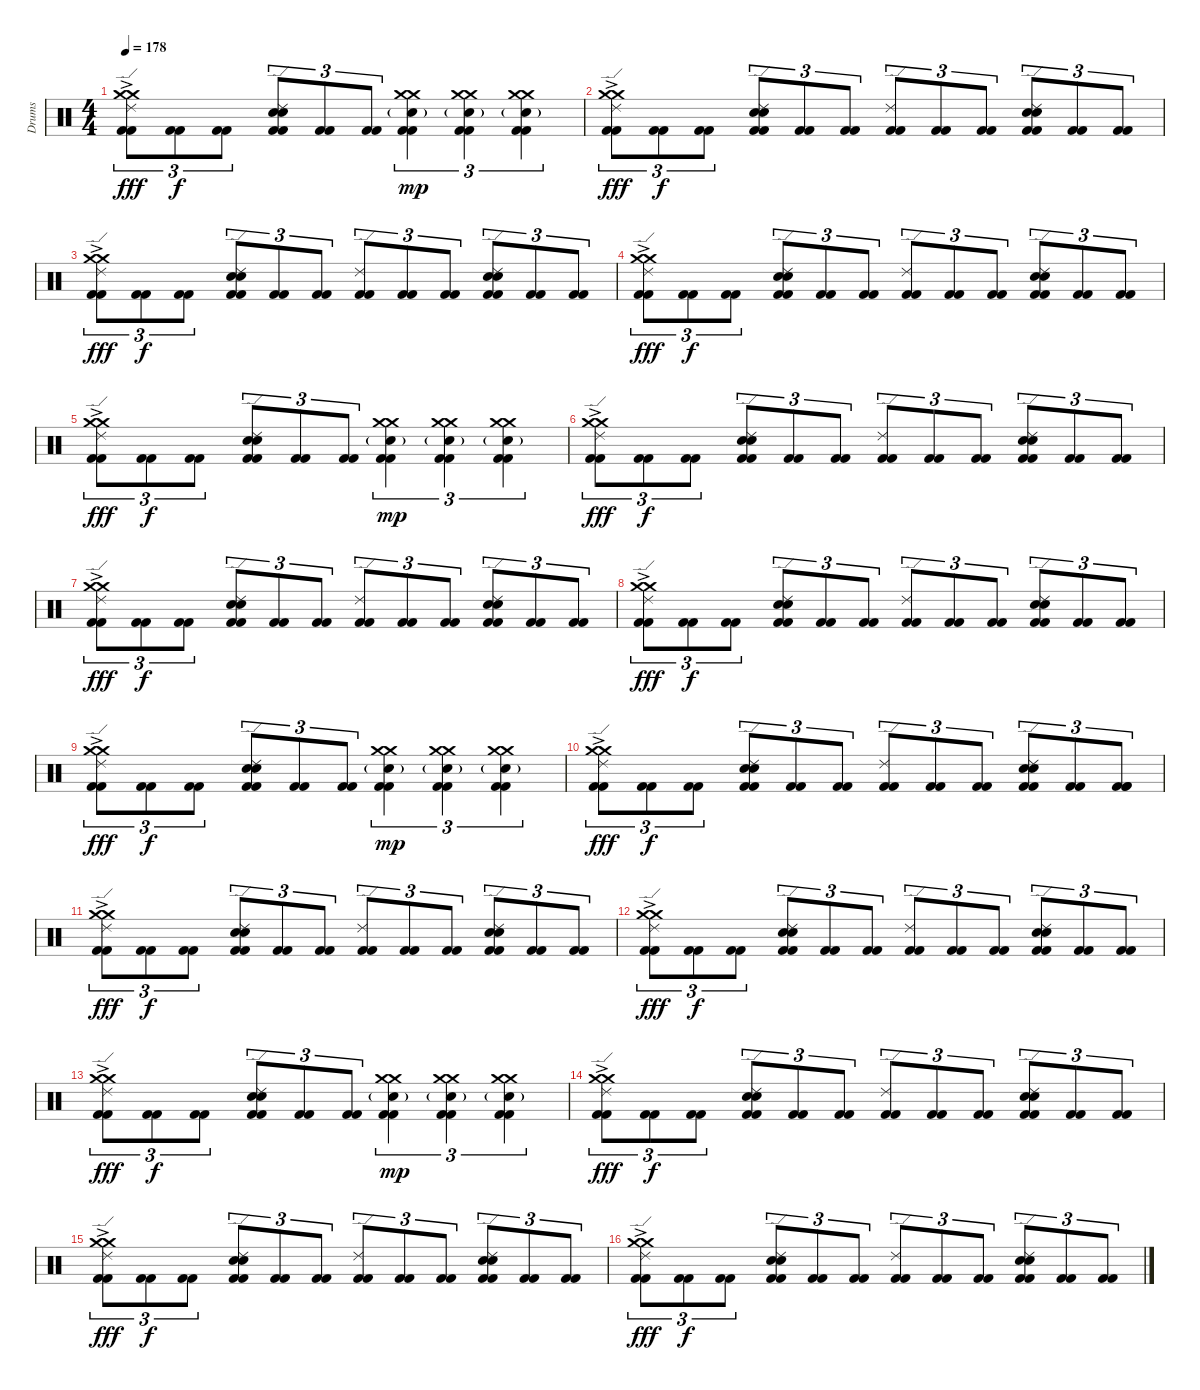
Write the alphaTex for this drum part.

\track ("Drums" "Drums") {instrument percussion}
\staff {score}
\articulation defaults
\ts (4 4)
\tempo 178
\clef neutral
\ks c
("Crash medium (hit)"{ac} "Crash medium (hit)"{ac} "Ride (edge) 2" "Kick (hit) 2" "Kick (hit) 2").8{tu (3 2) dy fff} ("Kick (hit) 2" "Kick (hit) 2").8{tu (3 2) dy f} ("Kick (hit) 2" "Kick (hit) 2").8{tu (3 2)} ("Ride (edge) 2" "Snare (hit) 2" "Electric Snare (hit)" "Kick (hit) 2" "Kick (hit) 2").8{tu (3 2)} ("Kick (hit) 2" "Kick (hit) 2").8{tu (3 2)} ("Kick (hit) 2" "Kick (hit) 2").8{tu (3 2)} ("Crash medium (hit)" "Crash medium (hit)" "Snare (hit) 2"{g} "Kick (hit) 2" "Kick (hit) 2").4{tu (3 2) dy mp} ("Crash medium (hit)" "Crash medium (hit)" "Snare (hit) 2"{g} "Kick (hit) 2" "Kick (hit) 2").4{tu (3 2)} ("Crash medium (hit)" "Crash medium (hit)" "Snare (hit) 2"{g} "Kick (hit) 2" "Kick (hit) 2").4{tu (3 2)} |
("Crash medium (hit)"{ac} "Crash medium (hit)"{ac} "Ride (edge) 2" "Kick (hit) 2" "Kick (hit) 2").8{tu (3 2) dy fff} ("Kick (hit) 2" "Kick (hit) 2").8{tu (3 2) dy f} ("Kick (hit) 2" "Kick (hit) 2").8{tu (3 2)} ("Ride (edge) 2" "Snare (hit) 2" "Electric Snare (hit)" "Kick (hit) 2" "Kick (hit) 2").8{tu (3 2)} ("Kick (hit) 2" "Kick (hit) 2").8{tu (3 2)} ("Kick (hit) 2" "Kick (hit) 2").8{tu (3 2)} ("Ride (edge) 2" "Kick (hit) 2" "Kick (hit) 2").8{tu (3 2)} ("Kick (hit) 2" "Kick (hit) 2").8{tu (3 2)} ("Kick (hit) 2" "Kick (hit) 2").8{tu (3 2)} ("Ride (edge) 2" "Snare (hit) 2" "Electric Snare (hit)" "Kick (hit) 2" "Kick (hit) 2").8{tu (3 2)} ("Kick (hit) 2" "Kick (hit) 2").8{tu (3 2)} ("Kick (hit) 2" "Kick (hit) 2").8{tu (3 2)} |
("Crash medium (hit)"{ac} "Crash medium (hit)"{ac} "Ride (edge) 2" "Kick (hit) 2" "Kick (hit) 2").8{tu (3 2) dy fff} ("Kick (hit) 2" "Kick (hit) 2").8{tu (3 2) dy f} ("Kick (hit) 2" "Kick (hit) 2").8{tu (3 2)} ("Ride (edge) 2" "Snare (hit) 2" "Electric Snare (hit)" "Kick (hit) 2" "Kick (hit) 2").8{tu (3 2)} ("Kick (hit) 2" "Kick (hit) 2").8{tu (3 2)} ("Kick (hit) 2" "Kick (hit) 2").8{tu (3 2)} ("Ride (edge) 2" "Kick (hit) 2" "Kick (hit) 2").8{tu (3 2)} ("Kick (hit) 2" "Kick (hit) 2").8{tu (3 2)} ("Kick (hit) 2" "Kick (hit) 2").8{tu (3 2)} ("Ride (edge) 2" "Snare (hit) 2" "Electric Snare (hit)" "Kick (hit) 2" "Kick (hit) 2").8{tu (3 2)} ("Kick (hit) 2" "Kick (hit) 2").8{tu (3 2)} ("Kick (hit) 2" "Kick (hit) 2").8{tu (3 2)} |
("Crash medium (hit)"{ac} "Crash medium (hit)"{ac} "Ride (edge) 2" "Kick (hit) 2" "Kick (hit) 2").8{tu (3 2) dy fff} ("Kick (hit) 2" "Kick (hit) 2").8{tu (3 2) dy f} ("Kick (hit) 2" "Kick (hit) 2").8{tu (3 2)} ("Ride (edge) 2" "Snare (hit) 2" "Electric Snare (hit)" "Kick (hit) 2" "Kick (hit) 2").8{tu (3 2)} ("Kick (hit) 2" "Kick (hit) 2").8{tu (3 2)} ("Kick (hit) 2" "Kick (hit) 2").8{tu (3 2)} ("Ride (edge) 2" "Kick (hit) 2" "Kick (hit) 2").8{tu (3 2)} ("Kick (hit) 2" "Kick (hit) 2").8{tu (3 2)} ("Kick (hit) 2" "Kick (hit) 2").8{tu (3 2)} ("Ride (edge) 2" "Snare (hit) 2" "Electric Snare (hit)" "Kick (hit) 2" "Kick (hit) 2").8{tu (3 2)} ("Kick (hit) 2" "Kick (hit) 2").8{tu (3 2)} ("Kick (hit) 2" "Kick (hit) 2").8{tu (3 2)} |
("Crash medium (hit)"{ac} "Crash medium (hit)"{ac} "Ride (edge) 2" "Kick (hit) 2" "Kick (hit) 2").8{tu (3 2) dy fff} ("Kick (hit) 2" "Kick (hit) 2").8{tu (3 2) dy f} ("Kick (hit) 2" "Kick (hit) 2").8{tu (3 2)} ("Ride (edge) 2" "Snare (hit) 2" "Electric Snare (hit)" "Kick (hit) 2" "Kick (hit) 2").8{tu (3 2)} ("Kick (hit) 2" "Kick (hit) 2").8{tu (3 2)} ("Kick (hit) 2" "Kick (hit) 2").8{tu (3 2)} ("Crash medium (hit)" "Crash medium (hit)" "Snare (hit) 2"{g} "Kick (hit) 2" "Kick (hit) 2").4{tu (3 2) dy mp} ("Crash medium (hit)" "Crash medium (hit)" "Snare (hit) 2"{g} "Kick (hit) 2" "Kick (hit) 2").4{tu (3 2)} ("Crash medium (hit)" "Crash medium (hit)" "Snare (hit) 2"{g} "Kick (hit) 2" "Kick (hit) 2").4{tu (3 2)} |
("Crash medium (hit)"{ac} "Crash medium (hit)"{ac} "Ride (edge) 2" "Kick (hit) 2" "Kick (hit) 2").8{tu (3 2) dy fff} ("Kick (hit) 2" "Kick (hit) 2").8{tu (3 2) dy f} ("Kick (hit) 2" "Kick (hit) 2").8{tu (3 2)} ("Ride (edge) 2" "Snare (hit) 2" "Electric Snare (hit)" "Kick (hit) 2" "Kick (hit) 2").8{tu (3 2)} ("Kick (hit) 2" "Kick (hit) 2").8{tu (3 2)} ("Kick (hit) 2" "Kick (hit) 2").8{tu (3 2)} ("Ride (edge) 2" "Kick (hit) 2" "Kick (hit) 2").8{tu (3 2)} ("Kick (hit) 2" "Kick (hit) 2").8{tu (3 2)} ("Kick (hit) 2" "Kick (hit) 2").8{tu (3 2)} ("Ride (edge) 2" "Snare (hit) 2" "Electric Snare (hit)" "Kick (hit) 2" "Kick (hit) 2").8{tu (3 2)} ("Kick (hit) 2" "Kick (hit) 2").8{tu (3 2)} ("Kick (hit) 2" "Kick (hit) 2").8{tu (3 2)} |
("Crash medium (hit)"{ac} "Crash medium (hit)"{ac} "Ride (edge) 2" "Kick (hit) 2" "Kick (hit) 2").8{tu (3 2) dy fff} ("Kick (hit) 2" "Kick (hit) 2").8{tu (3 2) dy f} ("Kick (hit) 2" "Kick (hit) 2").8{tu (3 2)} ("Ride (edge) 2" "Snare (hit) 2" "Electric Snare (hit)" "Kick (hit) 2" "Kick (hit) 2").8{tu (3 2)} ("Kick (hit) 2" "Kick (hit) 2").8{tu (3 2)} ("Kick (hit) 2" "Kick (hit) 2").8{tu (3 2)} ("Ride (edge) 2" "Kick (hit) 2" "Kick (hit) 2").8{tu (3 2)} ("Kick (hit) 2" "Kick (hit) 2").8{tu (3 2)} ("Kick (hit) 2" "Kick (hit) 2").8{tu (3 2)} ("Ride (edge) 2" "Snare (hit) 2" "Electric Snare (hit)" "Kick (hit) 2" "Kick (hit) 2").8{tu (3 2)} ("Kick (hit) 2" "Kick (hit) 2").8{tu (3 2)} ("Kick (hit) 2" "Kick (hit) 2").8{tu (3 2)} |
("Crash medium (hit)"{ac} "Crash medium (hit)"{ac} "Ride (edge) 2" "Kick (hit) 2" "Kick (hit) 2").8{tu (3 2) dy fff} ("Kick (hit) 2" "Kick (hit) 2").8{tu (3 2) dy f} ("Kick (hit) 2" "Kick (hit) 2").8{tu (3 2)} ("Ride (edge) 2" "Snare (hit) 2" "Electric Snare (hit)" "Kick (hit) 2" "Kick (hit) 2").8{tu (3 2)} ("Kick (hit) 2" "Kick (hit) 2").8{tu (3 2)} ("Kick (hit) 2" "Kick (hit) 2").8{tu (3 2)} ("Ride (edge) 2" "Kick (hit) 2" "Kick (hit) 2").8{tu (3 2)} ("Kick (hit) 2" "Kick (hit) 2").8{tu (3 2)} ("Kick (hit) 2" "Kick (hit) 2").8{tu (3 2)} ("Ride (edge) 2" "Snare (hit) 2" "Electric Snare (hit)" "Kick (hit) 2" "Kick (hit) 2").8{tu (3 2)} ("Kick (hit) 2" "Kick (hit) 2").8{tu (3 2)} ("Kick (hit) 2" "Kick (hit) 2").8{tu (3 2)} |
("Crash medium (hit)"{ac} "Crash medium (hit)"{ac} "Ride (edge) 2" "Kick (hit) 2" "Kick (hit) 2").8{tu (3 2) dy fff} ("Kick (hit) 2" "Kick (hit) 2").8{tu (3 2) dy f} ("Kick (hit) 2" "Kick (hit) 2").8{tu (3 2)} ("Ride (edge) 2" "Snare (hit) 2" "Electric Snare (hit)" "Kick (hit) 2" "Kick (hit) 2").8{tu (3 2)} ("Kick (hit) 2" "Kick (hit) 2").8{tu (3 2)} ("Kick (hit) 2" "Kick (hit) 2").8{tu (3 2)} ("Crash medium (hit)" "Crash medium (hit)" "Snare (hit) 2"{g} "Kick (hit) 2" "Kick (hit) 2").4{tu (3 2) dy mp} ("Crash medium (hit)" "Crash medium (hit)" "Snare (hit) 2"{g} "Kick (hit) 2" "Kick (hit) 2").4{tu (3 2)} ("Crash medium (hit)" "Crash medium (hit)" "Snare (hit) 2"{g} "Kick (hit) 2" "Kick (hit) 2").4{tu (3 2)} |
("Crash medium (hit)"{ac} "Crash medium (hit)"{ac} "Ride (edge) 2" "Kick (hit) 2" "Kick (hit) 2").8{tu (3 2) dy fff} ("Kick (hit) 2" "Kick (hit) 2").8{tu (3 2) dy f} ("Kick (hit) 2" "Kick (hit) 2").8{tu (3 2)} ("Ride (edge) 2" "Snare (hit) 2" "Electric Snare (hit)" "Kick (hit) 2" "Kick (hit) 2").8{tu (3 2)} ("Kick (hit) 2" "Kick (hit) 2").8{tu (3 2)} ("Kick (hit) 2" "Kick (hit) 2").8{tu (3 2)} ("Ride (edge) 2" "Kick (hit) 2" "Kick (hit) 2").8{tu (3 2)} ("Kick (hit) 2" "Kick (hit) 2").8{tu (3 2)} ("Kick (hit) 2" "Kick (hit) 2").8{tu (3 2)} ("Ride (edge) 2" "Snare (hit) 2" "Electric Snare (hit)" "Kick (hit) 2" "Kick (hit) 2").8{tu (3 2)} ("Kick (hit) 2" "Kick (hit) 2").8{tu (3 2)} ("Kick (hit) 2" "Kick (hit) 2" "Kick (hit) 2").8{tu (3 2)} |
("Crash medium (hit)"{ac} "Crash medium (hit)"{ac} "Ride (edge) 2" "Kick (hit) 2" "Kick (hit) 2").8{tu (3 2) dy fff} ("Kick (hit) 2" "Kick (hit) 2").8{tu (3 2) dy f} ("Kick (hit) 2" "Kick (hit) 2").8{tu (3 2)} ("Ride (edge) 2" "Snare (hit) 2" "Electric Snare (hit)" "Kick (hit) 2" "Kick (hit) 2").8{tu (3 2)} ("Kick (hit) 2" "Kick (hit) 2").8{tu (3 2)} ("Kick (hit) 2" "Kick (hit) 2").8{tu (3 2)} ("Ride (edge) 2" "Kick (hit) 2" "Kick (hit) 2").8{tu (3 2)} ("Kick (hit) 2" "Kick (hit) 2").8{tu (3 2)} ("Kick (hit) 2" "Kick (hit) 2").8{tu (3 2)} ("Ride (edge) 2" "Snare (hit) 2" "Electric Snare (hit)" "Kick (hit) 2" "Kick (hit) 2").8{tu (3 2)} ("Kick (hit) 2" "Kick (hit) 2").8{tu (3 2)} ("Kick (hit) 2" "Kick (hit) 2").8{tu (3 2)} |
("Crash medium (hit)"{ac} "Crash medium (hit)"{ac} "Ride (edge) 2" "Kick (hit) 2" "Kick (hit) 2").8{tu (3 2) dy fff} ("Kick (hit) 2" "Kick (hit) 2").8{tu (3 2) dy f} ("Kick (hit) 2" "Kick (hit) 2").8{tu (3 2)} ("Ride (edge) 2" "Snare (hit) 2" "Electric Snare (hit)" "Kick (hit) 2" "Kick (hit) 2").8{tu (3 2)} ("Kick (hit) 2" "Kick (hit) 2").8{tu (3 2)} ("Kick (hit) 2" "Kick (hit) 2").8{tu (3 2)} ("Ride (edge) 2" "Kick (hit) 2" "Kick (hit) 2").8{tu (3 2)} ("Kick (hit) 2" "Kick (hit) 2").8{tu (3 2)} ("Kick (hit) 2" "Kick (hit) 2").8{tu (3 2)} ("Ride (edge) 2" "Snare (hit) 2" "Electric Snare (hit)" "Kick (hit) 2" "Kick (hit) 2").8{tu (3 2)} ("Kick (hit) 2" "Kick (hit) 2").8{tu (3 2)} ("Kick (hit) 2" "Kick (hit) 2").8{tu (3 2)} |
("Crash medium (hit)"{ac} "Crash medium (hit)"{ac} "Ride (edge) 2" "Kick (hit) 2" "Kick (hit) 2").8{tu (3 2) dy fff} ("Kick (hit) 2" "Kick (hit) 2").8{tu (3 2) dy f} ("Kick (hit) 2" "Kick (hit) 2").8{tu (3 2)} ("Ride (edge) 2" "Snare (hit) 2" "Electric Snare (hit)" "Kick (hit) 2" "Kick (hit) 2").8{tu (3 2)} ("Kick (hit) 2" "Kick (hit) 2").8{tu (3 2)} ("Kick (hit) 2" "Kick (hit) 2").8{tu (3 2)} ("Crash medium (hit)" "Crash medium (hit)" "Snare (hit) 2"{g} "Kick (hit) 2" "Kick (hit) 2").4{tu (3 2) dy mp} ("Crash medium (hit)" "Crash medium (hit)" "Snare (hit) 2"{g} "Kick (hit) 2" "Kick (hit) 2").4{tu (3 2)} ("Crash medium (hit)" "Crash medium (hit)" "Snare (hit) 2"{g} "Kick (hit) 2" "Kick (hit) 2").4{tu (3 2)} |
("Crash medium (hit)"{ac} "Crash medium (hit)"{ac} "Ride (edge) 2" "Kick (hit) 2" "Kick (hit) 2").8{tu (3 2) dy fff} ("Kick (hit) 2" "Kick (hit) 2").8{tu (3 2) dy f} ("Kick (hit) 2" "Kick (hit) 2").8{tu (3 2)} ("Ride (edge) 2" "Snare (hit) 2" "Electric Snare (hit)" "Kick (hit) 2" "Kick (hit) 2").8{tu (3 2)} ("Kick (hit) 2" "Kick (hit) 2").8{tu (3 2)} ("Kick (hit) 2" "Kick (hit) 2").8{tu (3 2)} ("Ride (edge) 2" "Kick (hit) 2" "Kick (hit) 2").8{tu (3 2)} ("Kick (hit) 2" "Kick (hit) 2").8{tu (3 2)} ("Kick (hit) 2" "Kick (hit) 2").8{tu (3 2)} ("Ride (edge) 2" "Snare (hit) 2" "Electric Snare (hit)" "Kick (hit) 2" "Kick (hit) 2").8{tu (3 2)} ("Kick (hit) 2" "Kick (hit) 2").8{tu (3 2)} ("Kick (hit) 2" "Kick (hit) 2").8{tu (3 2)} |
("Crash medium (hit)"{ac} "Crash medium (hit)"{ac} "Ride (edge) 2" "Kick (hit) 2" "Kick (hit) 2").8{tu (3 2) dy fff} ("Kick (hit) 2" "Kick (hit) 2").8{tu (3 2) dy f} ("Kick (hit) 2" "Kick (hit) 2").8{tu (3 2)} ("Ride (edge) 2" "Snare (hit) 2" "Electric Snare (hit)" "Kick (hit) 2" "Kick (hit) 2").8{tu (3 2)} ("Kick (hit) 2" "Kick (hit) 2").8{tu (3 2)} ("Kick (hit) 2" "Kick (hit) 2").8{tu (3 2)} ("Ride (edge) 2" "Kick (hit) 2" "Kick (hit) 2").8{tu (3 2)} ("Kick (hit) 2" "Kick (hit) 2").8{tu (3 2)} ("Kick (hit) 2" "Kick (hit) 2").8{tu (3 2)} ("Ride (edge) 2" "Snare (hit) 2" "Electric Snare (hit)" "Kick (hit) 2" "Kick (hit) 2").8{tu (3 2)} ("Kick (hit) 2" "Kick (hit) 2").8{tu (3 2)} ("Kick (hit) 2" "Kick (hit) 2").8{tu (3 2)} |
("Crash medium (hit)"{ac} "Crash medium (hit)"{ac} "Ride (edge) 2" "Kick (hit) 2" "Kick (hit) 2").8{tu (3 2) dy fff} ("Kick (hit) 2" "Kick (hit) 2").8{tu (3 2) dy f} ("Kick (hit) 2" "Kick (hit) 2").8{tu (3 2)} ("Ride (edge) 2" "Snare (hit) 2" "Electric Snare (hit)" "Kick (hit) 2" "Kick (hit) 2").8{tu (3 2)} ("Kick (hit) 2" "Kick (hit) 2").8{tu (3 2)} ("Kick (hit) 2" "Kick (hit) 2").8{tu (3 2)} ("Ride (edge) 2" "Kick (hit) 2" "Kick (hit) 2").8{tu (3 2)} ("Kick (hit) 2" "Kick (hit) 2").8{tu (3 2)} ("Kick (hit) 2" "Kick (hit) 2").8{tu (3 2)} ("Ride (edge) 2" "Snare (hit) 2" "Electric Snare (hit)" "Kick (hit) 2" "Kick (hit) 2").8{tu (3 2)} ("Kick (hit) 2" "Kick (hit) 2").8{tu (3 2)} ("Kick (hit) 2" "Kick (hit) 2").8{tu (3 2)}
